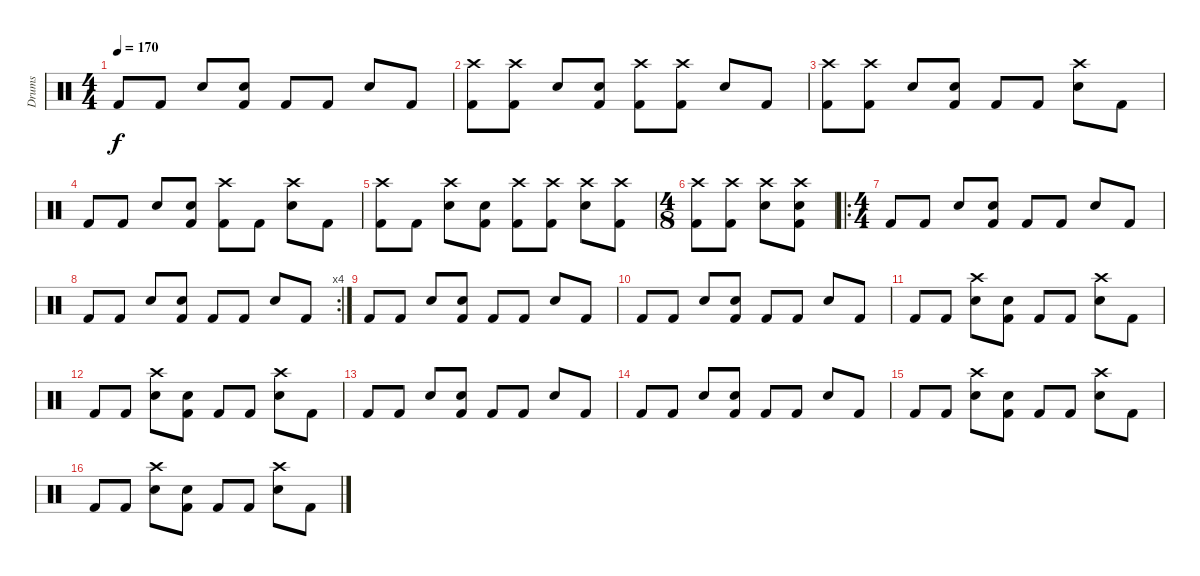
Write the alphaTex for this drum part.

\track ("Drums" "Drums") {instrument percussion}
\staff {score}
\articulation defaults
\ts (4 4)
\tempo 170
\clef neutral
\ks c "Kick (hit) 2".8{dy f} "Kick (hit) 2".8 "Snare (hit) 2".8
("Electric Snare (hit)" "Kick (hit) 2").8 "Kick (hit) 2".8 "Kick (hit) 2".8 "Snare (hit) 2".8 "Kick (hit) 2".8 |
("Crash high (hit)" "Kick (hit) 2").8 ("Crash high (hit)" "Kick (hit) 2").8 "Snare (hit) 2".8 ("Electric Snare (hit)" "Kick (hit) 2").8 ("Crash high (hit)" "Kick (hit) 2").8 ("Crash high (hit)" "Kick (hit) 2").8 "Snare (hit) 2".8 "Kick (hit) 2".8 |
("Crash high (hit)" "Kick (hit) 2").8 ("Crash high (hit)" "Kick (hit) 2").8 "Snare (hit) 2".8 ("Electric Snare (hit)" "Kick (hit) 2").8 "Kick (hit) 2".8 "Kick (hit) 2".8 ("Snare (hit) 2" "Crash high (hit)").8 "Kick (hit) 2".8 |
"Kick (hit) 2".8 "Kick (hit) 2".8 "Snare (hit) 2".8 ("Electric Snare (hit)" "Kick (hit) 2").8 ("Crash high (hit)" "Kick (hit) 2").8 "Kick (hit) 2".8 ("Snare (hit) 2" "Crash high (hit)").8 "Kick (hit) 2".8 |
("Crash high (hit)" "Kick (hit) 2").8 "Kick (hit) 2".8 ("Snare (hit) 2" "Crash high (hit)").8 ("Electric Snare (hit)" "Kick (hit) 2").8 ("Crash high (hit)" "Kick (hit) 2").8 ("Crash high (hit)" "Kick (hit) 2").8 ("Snare (hit) 2" "Crash high (hit)").8 ("Crash high (hit)" "Kick (hit) 2").8 |
\ts (4 8)
("Crash high (hit)" "Kick (hit) 2").8 ("Crash high (hit)" "Kick (hit) 2").8 ("Snare (hit) 2" "Crash high (hit)").8 ("Electric Snare (hit)" "Crash high (hit)" "Kick (hit) 2").8 |
\ro
\ts (4 4)
"Kick (hit) 2".8 "Kick (hit) 2".8 "Snare (hit) 2".8 ("Electric Snare (hit)" "Kick (hit) 2").8 "Kick (hit) 2".8 "Kick (hit) 2".8 "Snare (hit) 2".8 "Kick (hit) 2".8 |
\rc 4 "Kick (hit) 2".8 "Kick (hit) 2".8 "Snare (hit) 2".8
("Electric Snare (hit)" "Kick (hit) 2").8 "Kick (hit) 2".8 "Kick (hit) 2".8 "Snare (hit) 2".8 "Kick (hit) 2".8 |
"Kick (hit) 2".8 "Kick (hit) 2".8 "Snare (hit) 2".8 ("Electric Snare (hit)" "Kick (hit) 2").8 "Kick (hit) 2".8 "Kick (hit) 2".8 "Snare (hit) 2".8 "Kick (hit) 2".8 |
"Kick (hit) 2".8 "Kick (hit) 2".8 "Snare (hit) 2".8 ("Electric Snare (hit)" "Kick (hit) 2").8 "Kick (hit) 2".8 "Kick (hit) 2".8 "Snare (hit) 2".8 "Kick (hit) 2".8 |
"Kick (hit) 2".8 "Kick (hit) 2".8 ("Snare (hit) 2" "Crash high (hit)").8 ("Electric Snare (hit)" "Kick (hit) 2").8 "Kick (hit) 2".8 "Kick (hit) 2".8 ("Snare (hit) 2" "Crash high (hit)").8 "Kick (hit) 2".8 |
"Kick (hit) 2".8 "Kick (hit) 2".8 ("Snare (hit) 2" "Crash high (hit)").8 ("Electric Snare (hit)" "Kick (hit) 2").8 "Kick (hit) 2".8 "Kick (hit) 2".8 ("Snare (hit) 2" "Crash high (hit)").8 "Kick (hit) 2".8 |
"Kick (hit) 2".8 "Kick (hit) 2".8 "Snare (hit) 2".8 ("Electric Snare (hit)" "Kick (hit) 2").8 "Kick (hit) 2".8 "Kick (hit) 2".8 "Snare (hit) 2".8 "Kick (hit) 2".8 |
"Kick (hit) 2".8 "Kick (hit) 2".8 "Snare (hit) 2".8 ("Electric Snare (hit)" "Kick (hit) 2").8 "Kick (hit) 2".8 "Kick (hit) 2".8 "Snare (hit) 2".8 "Kick (hit) 2".8 |
"Kick (hit) 2".8 "Kick (hit) 2".8 ("Snare (hit) 2" "Crash high (hit)").8 ("Electric Snare (hit)" "Kick (hit) 2").8 "Kick (hit) 2".8 "Kick (hit) 2".8 ("Snare (hit) 2" "Crash high (hit)").8 "Kick (hit) 2".8 |
"Kick (hit) 2".8 "Kick (hit) 2".8 ("Snare (hit) 2" "Crash high (hit)").8 ("Electric Snare (hit)" "Kick (hit) 2").8 "Kick (hit) 2".8 "Kick (hit) 2".8 ("Snare (hit) 2" "Crash high (hit)").8 "Kick (hit) 2".8
